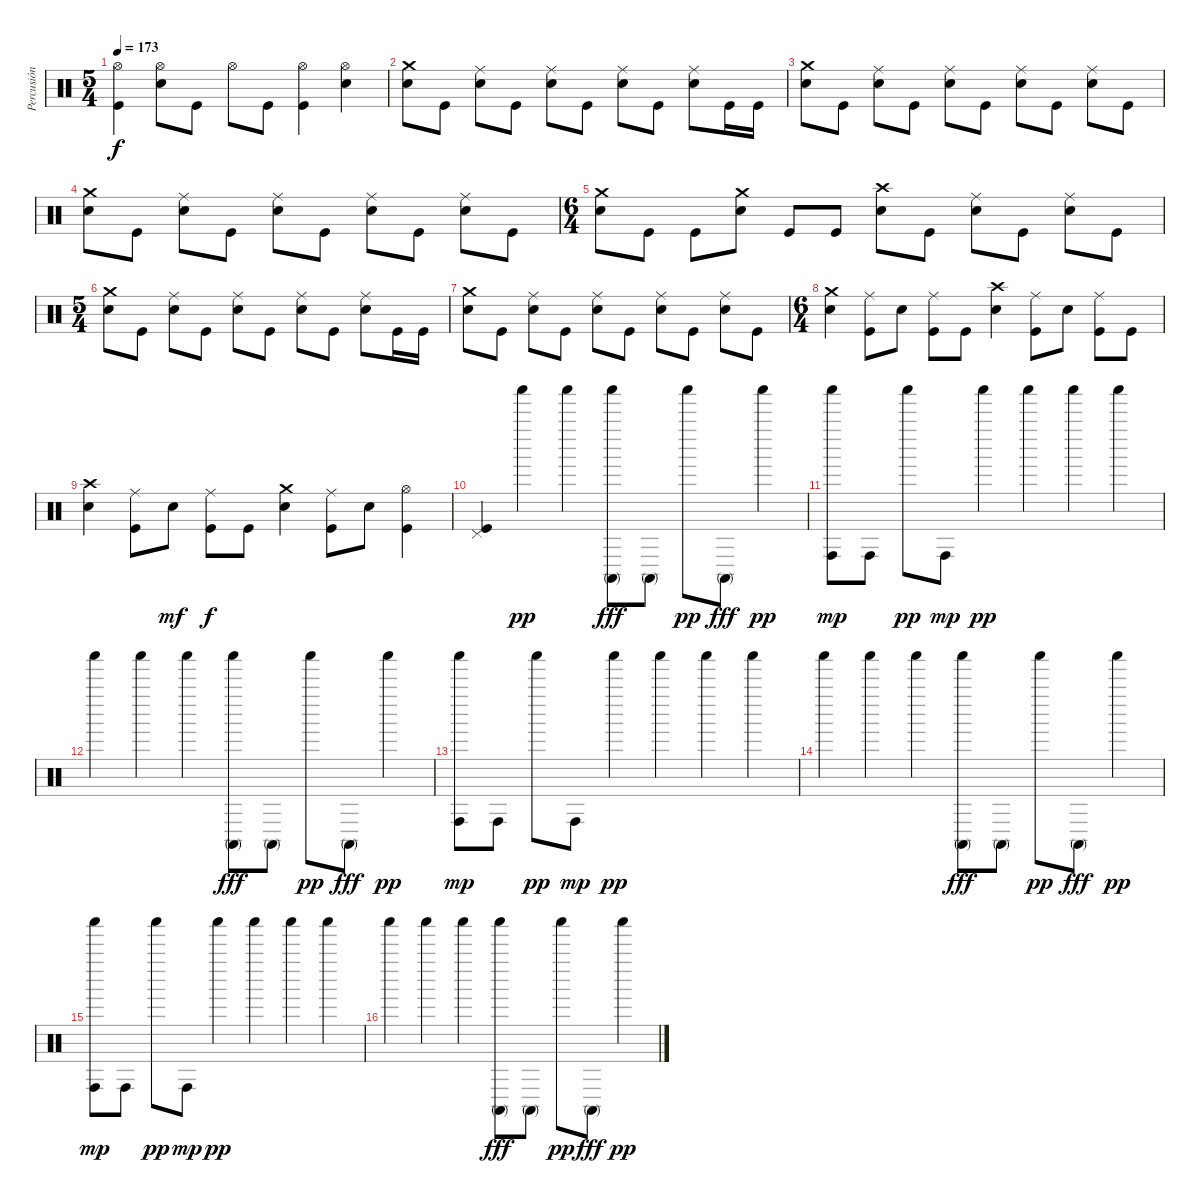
\track ("Percusión" "Percusión") {instrument percussion}
\staff {score}
\articulation defaults
\ts (5 4)
\tempo 173
\clef neutral
\ks c
("Hi-Hat (open)" "Kick (hit)").4{dy f} ("Hi-Hat (open)" "Electric Snare (hit)").8 "Kick (hit)".8 "Hi-Hat (open)".8 "Kick (hit)".8 ("Hi-Hat (open)" "Kick (hit)").4 ("Hi-Hat (open)" "Electric Snare (hit)").4 |
("Crash medium (hit)" "Electric Snare (hit)").8 "Kick (hit)".8 ("Ride (middle)" "Electric Snare (hit)").8 "Kick (hit)".8 ("Ride (middle)" "Electric Snare (hit)").8 "Kick (hit)".8 ("Ride (middle)" "Electric Snare (hit)").8 "Kick (hit)".8 ("Ride (middle)" "Electric Snare (hit)").8 "Kick (hit)".16 "Kick (hit)".16 |
("Crash medium (hit)" "Electric Snare (hit)").8 "Kick (hit)".8 ("Ride (middle)" "Electric Snare (hit)").8 "Kick (hit)".8 ("Ride (middle)" "Electric Snare (hit)").8 "Kick (hit)".8 ("Ride (middle)" "Electric Snare (hit)").8 "Kick (hit)".8 ("Ride (middle)" "Electric Snare (hit)").8 "Kick (hit)".8 |
("Crash medium (hit)" "Electric Snare (hit)").8 "Kick (hit)".8 ("Ride (middle)" "Electric Snare (hit)").8 "Kick (hit)".8 ("Ride (middle)" "Electric Snare (hit)").8 "Kick (hit)".8 ("Ride (middle)" "Electric Snare (hit)").8 "Kick (hit)".8 ("Ride (middle)" "Electric Snare (hit)").8 "Kick (hit)".8 |
\ts (6 4)
("Crash medium (hit)" "Electric Snare (hit)").8 "Kick (hit)".8 "Kick (hit)".8 ("Crash medium (hit)" "Electric Snare (hit)").8 "Kick (hit)".8 "Kick (hit)".8 ("Crash high (hit)" "Electric Snare (hit)").8 "Kick (hit)".8 ("Ride (middle)" "Electric Snare (hit)").8 "Kick (hit)".8 ("Ride (middle)" "Electric Snare (hit)").8 "Kick (hit)".8 |
\ts (5 4)
("Crash medium (hit)" "Electric Snare (hit)").8 "Kick (hit)".8 ("Ride (middle)" "Electric Snare (hit)").8 "Kick (hit)".8 ("Ride (middle)" "Electric Snare (hit)").8 "Kick (hit)".8 ("Ride (middle)" "Electric Snare (hit)").8 "Kick (hit)".8 ("Ride (middle)" "Electric Snare (hit)").8 "Kick (hit)".16 "Kick (hit)".16 |
("Crash medium (hit)" "Electric Snare (hit)").8 "Kick (hit)".8 ("Ride (middle)" "Electric Snare (hit)").8 "Kick (hit)".8 ("Ride (middle)" "Electric Snare (hit)").8 "Kick (hit)".8 ("Ride (middle)" "Electric Snare (hit)").8 "Kick (hit)".8 ("Ride (middle)" "Electric Snare (hit)").8 "Kick (hit)".8 |
\ts (6 4)
("Crash medium (hit)" "Electric Snare (hit)").4 ("Ride (middle)" "Kick (hit)").8 "Electric Snare (hit)".8 ("Ride (middle)" "Kick (hit)").8 "Kick (hit)".8 ("Crash high (hit)" "Electric Snare (hit)").4 ("Ride (middle)" "Kick (hit)").8 "Electric Snare (hit)".8 ("Ride (middle)" "Kick (hit)").8 "Kick (hit)".8 |
("Crash high (hit)" "Electric Snare (hit)").4 ("Ride (middle)" "Kick (hit)").8 "Electric Snare (hit)".8{dy mf} ("Ride (middle)" "Kick (hit)").8{dy f} "Kick (hit)".8 ("Crash medium (hit)" "Electric Snare (hit)").4 ("Ride (middle)" "Kick (hit)").8 "Electric Snare (hit)".8 ("Hi-Hat (open)" "Kick (hit)").4 |
("Pedal Hi-Hat (hit)" "Kick (hit)").4 "Shaker (hit)".4{dy pp} "Shaker (hit)".4 ("Shaker (hit)" "Conga high (mute)").8{dy fff} "Conga high (mute)".8 "Shaker (hit)".8{dy pp} "Conga high (mute)".8{dy fff} "Shaker (hit)".4{dy pp} |
("Shaker (hit)" "Conga high (hit)").8{dy mp} "Conga high (hit)".8 "Shaker (hit)".8{dy pp} "Conga high (hit)".8{dy mp} "Shaker (hit)".4{dy pp} "Shaker (hit)".4 "Shaker (hit)".4 "Shaker (hit)".4 |
"Shaker (hit)".4 "Shaker (hit)".4 "Shaker (hit)".4 ("Shaker (hit)" "Conga high (mute)").8{dy fff} "Conga high (mute)".8 "Shaker (hit)".8{dy pp} "Conga high (mute)".8{dy fff} "Shaker (hit)".4{dy pp} |
("Shaker (hit)" "Conga high (hit)").8{dy mp} "Conga high (hit)".8 "Shaker (hit)".8{dy pp} "Conga high (hit)".8{dy mp} "Shaker (hit)".4{dy pp} "Shaker (hit)".4 "Shaker (hit)".4 "Shaker (hit)".4 |
"Shaker (hit)".4 "Shaker (hit)".4 "Shaker (hit)".4 ("Shaker (hit)" "Conga high (mute)").8{dy fff} "Conga high (mute)".8 "Shaker (hit)".8{dy pp} "Conga high (mute)".8{dy fff} "Shaker (hit)".4{dy pp} |
("Shaker (hit)" "Conga high (hit)").8{dy mp} "Conga high (hit)".8 "Shaker (hit)".8{dy pp} "Conga high (hit)".8{dy mp} "Shaker (hit)".4{dy pp} "Shaker (hit)".4 "Shaker (hit)".4 "Shaker (hit)".4 |
"Shaker (hit)".4 "Shaker (hit)".4 "Shaker (hit)".4 ("Shaker (hit)" "Conga high (mute)").8{dy fff} "Conga high (mute)".8 "Shaker (hit)".8{dy pp} "Conga high (mute)".8{dy fff} "Shaker (hit)".4{dy pp}
